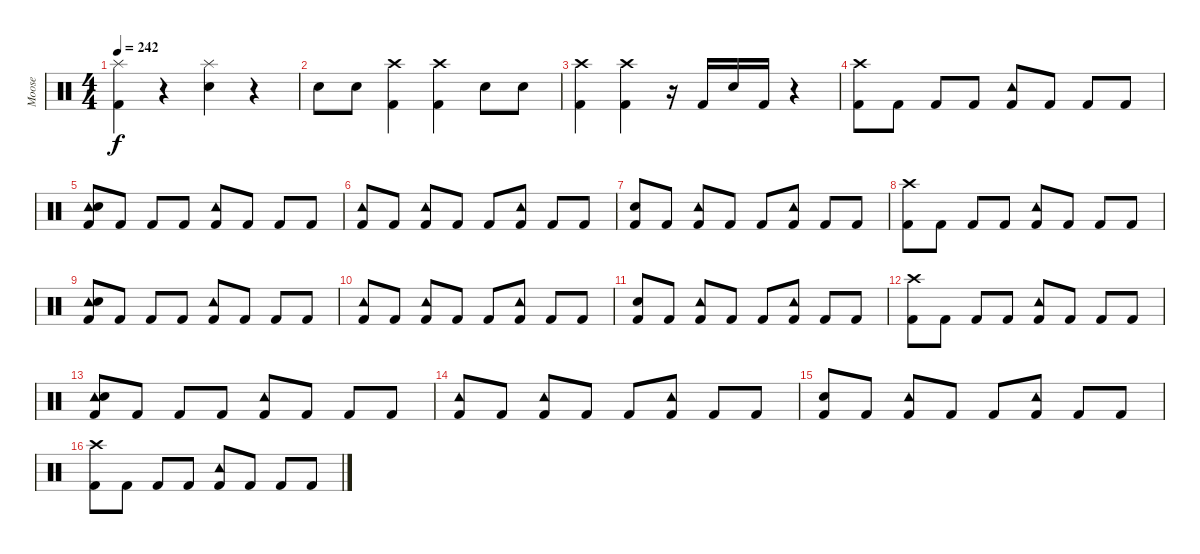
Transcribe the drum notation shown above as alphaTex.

\track ("Moose" "Moose") {instrument percussion}
\staff {score}
\articulation defaults
\ts (4 4)
\tempo 242
\clef neutral
\ks c
("Splash (hit)" "Kick (hit) 2").4{dy f} r.4 ("Splash (hit)" "Electric Snare (hit)").4 r.4 |
"Electric Snare (hit)".8 "Electric Snare (hit)".8 ("Crash high (hit)" "Kick (hit) 2").4 ("Crash high (hit)" "Kick (hit) 2").4 "Electric Snare (hit)".8 "Electric Snare (hit)".8 |
("Crash high (hit)" "Kick (hit) 2").4 ("Crash high (hit)" "Kick (hit) 2").4 r.16 "Kick (hit) 2".16 "Electric Snare (hit)".16 "Kick (hit) 2".16 r.4 |
("Crash high (hit)" "Kick (hit) 2").8 "Kick (hit) 2".8 "Kick (hit) 2".8 "Kick (hit) 2".8 ("Tambourine (hit)" "Kick (hit) 2").8 "Kick (hit) 2".8 "Kick (hit) 2".8 "Kick (hit) 2".8 |
("Tambourine (hit)" "Electric Snare (hit)" "Kick (hit) 2").8 "Kick (hit) 2".8 "Kick (hit) 2".8 "Kick (hit) 2".8 ("Tambourine (hit)" "Kick (hit) 2").8 "Kick (hit) 2".8 "Kick (hit) 2".8 "Kick (hit) 2".8 |
("Tambourine (hit)" "Kick (hit) 2").8 "Kick (hit) 2".8 ("Tambourine (hit)" "Kick (hit) 2").8 "Kick (hit) 2".8 "Kick (hit) 2".8 ("Tambourine (hit)" "Kick (hit) 2").8 "Kick (hit) 2".8 "Kick (hit) 2".8 |
("Electric Snare (hit)" "Kick (hit) 2").8 "Kick (hit) 2".8 ("Tambourine (hit)" "Kick (hit) 2").8 "Kick (hit) 2".8 "Kick (hit) 2".8 ("Tambourine (hit)" "Kick (hit) 2").8 "Kick (hit) 2".8 "Kick (hit) 2".8 |
("Crash high (hit)" "Kick (hit) 2").8 "Kick (hit) 2".8 "Kick (hit) 2".8 "Kick (hit) 2".8 ("Tambourine (hit)" "Kick (hit) 2").8 "Kick (hit) 2".8 "Kick (hit) 2".8 "Kick (hit) 2".8 |
("Tambourine (hit)" "Electric Snare (hit)" "Kick (hit) 2").8 "Kick (hit) 2".8 "Kick (hit) 2".8 "Kick (hit) 2".8 ("Tambourine (hit)" "Kick (hit) 2").8 "Kick (hit) 2".8 "Kick (hit) 2".8 "Kick (hit) 2".8 |
("Tambourine (hit)" "Kick (hit) 2").8 "Kick (hit) 2".8 ("Tambourine (hit)" "Kick (hit) 2").8 "Kick (hit) 2".8 "Kick (hit) 2".8 ("Tambourine (hit)" "Kick (hit) 2").8 "Kick (hit) 2".8 "Kick (hit) 2".8 |
("Electric Snare (hit)" "Kick (hit) 2").8 "Kick (hit) 2".8 ("Tambourine (hit)" "Kick (hit) 2").8 "Kick (hit) 2".8 "Kick (hit) 2".8 ("Tambourine (hit)" "Kick (hit) 2").8 "Kick (hit) 2".8 "Kick (hit) 2".8 |
("Crash high (hit)" "Kick (hit) 2").8 "Kick (hit) 2".8 "Kick (hit) 2".8 "Kick (hit) 2".8 ("Tambourine (hit)" "Kick (hit) 2").8 "Kick (hit) 2".8 "Kick (hit) 2".8 "Kick (hit) 2".8 |
("Tambourine (hit)" "Electric Snare (hit)" "Kick (hit) 2").8 "Kick (hit) 2".8 "Kick (hit) 2".8 "Kick (hit) 2".8 ("Tambourine (hit)" "Kick (hit) 2").8 "Kick (hit) 2".8 "Kick (hit) 2".8 "Kick (hit) 2".8 |
("Tambourine (hit)" "Kick (hit) 2").8 "Kick (hit) 2".8 ("Tambourine (hit)" "Kick (hit) 2").8 "Kick (hit) 2".8 "Kick (hit) 2".8 ("Tambourine (hit)" "Kick (hit) 2").8 "Kick (hit) 2".8 "Kick (hit) 2".8 |
("Electric Snare (hit)" "Kick (hit) 2").8 "Kick (hit) 2".8 ("Tambourine (hit)" "Kick (hit) 2").8 "Kick (hit) 2".8 "Kick (hit) 2".8 ("Tambourine (hit)" "Kick (hit) 2").8 "Kick (hit) 2".8 "Kick (hit) 2".8 |
("Crash high (hit)" "Kick (hit) 2").8 "Kick (hit) 2".8 "Kick (hit) 2".8 "Kick (hit) 2".8 ("Tambourine (hit)" "Kick (hit) 2").8 "Kick (hit) 2".8 "Kick (hit) 2".8 "Kick (hit) 2".8
